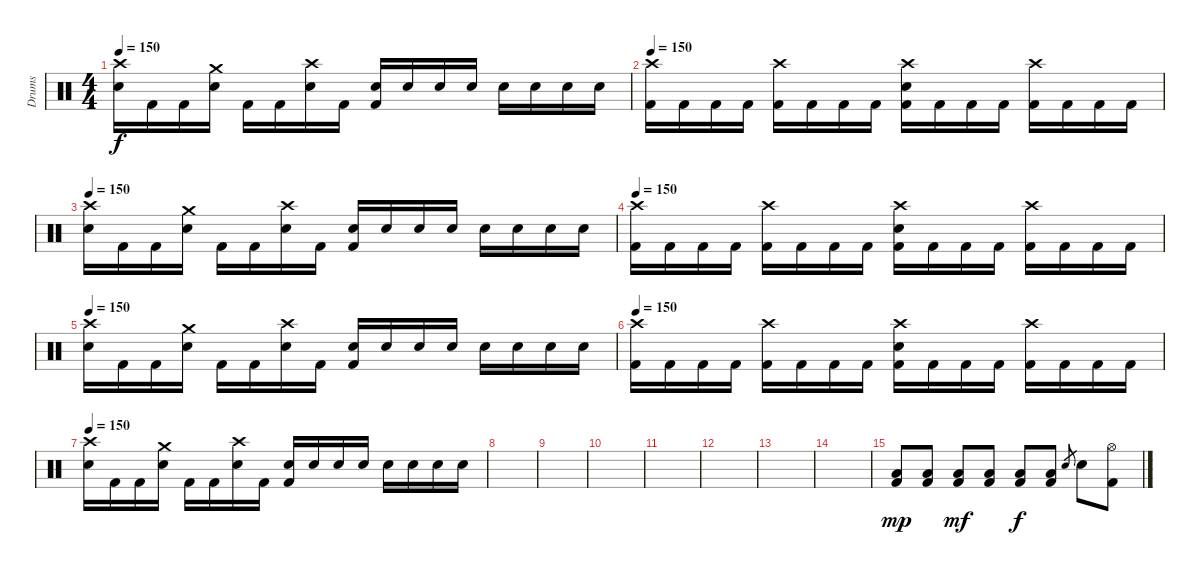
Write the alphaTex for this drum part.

\track ("Drums" "Drums") {instrument percussion}
\staff {score}
\articulation defaults
\ts (4 4)
\tempo 150
\clef neutral
\ks c
("Crash high (hit)" "Electric Snare (hit)").16{dy f} "Kick (hit) 2".16 "Kick (hit) 2".16 ("Crash medium (hit)" "Electric Snare (hit)").16 "Kick (hit) 2".16 "Kick (hit) 2".16 ("Crash high (hit)" "Electric Snare (hit)").16 "Kick (hit) 2".16 ("Electric Snare (hit)" "Kick (hit) 2").16 "Electric Snare (hit)".16 "Electric Snare (hit)".16 "Electric Snare (hit)".16 "Electric Snare (hit)".16 "Electric Snare (hit)".16 "Electric Snare (hit)".16 "Electric Snare (hit)".16 |
\tempo 150
("Crash high (hit)" "Kick (hit) 2").16 "Kick (hit) 2".16 "Kick (hit) 2".16 "Kick (hit) 2".16 ("Crash high (hit)" "Kick (hit) 2").16 "Kick (hit) 2".16 "Kick (hit) 2".16 "Kick (hit) 2".16 ("Crash high (hit)" "Electric Snare (hit)" "Kick (hit) 2").16 "Kick (hit) 2".16 "Kick (hit) 2".16 "Kick (hit) 2".16 ("Crash high (hit)" "Kick (hit) 2").16 "Kick (hit) 2".16 "Kick (hit) 2".16 "Kick (hit) 2".16 |
\tempo 150
("Crash high (hit)" "Electric Snare (hit)").16 "Kick (hit) 2".16 "Kick (hit) 2".16 ("Crash medium (hit)" "Electric Snare (hit)").16 "Kick (hit) 2".16 "Kick (hit) 2".16 ("Crash high (hit)" "Electric Snare (hit)").16 "Kick (hit) 2".16 ("Electric Snare (hit)" "Kick (hit) 2").16 "Electric Snare (hit)".16 "Electric Snare (hit)".16 "Electric Snare (hit)".16 "Electric Snare (hit)".16 "Electric Snare (hit)".16 "Electric Snare (hit)".16 "Electric Snare (hit)".16 |
\tempo 150
("Crash high (hit)" "Kick (hit) 2").16 "Kick (hit) 2".16 "Kick (hit) 2".16 "Kick (hit) 2".16 ("Crash high (hit)" "Kick (hit) 2").16 "Kick (hit) 2".16 "Kick (hit) 2".16 "Kick (hit) 2".16 ("Crash high (hit)" "Electric Snare (hit)" "Kick (hit) 2").16 "Kick (hit) 2".16 "Kick (hit) 2".16 "Kick (hit) 2".16 ("Crash high (hit)" "Kick (hit) 2").16 "Kick (hit) 2".16 "Kick (hit) 2".16 "Kick (hit) 2".16 |
\tempo 150
("Crash high (hit)" "Electric Snare (hit)").16 "Kick (hit) 2".16 "Kick (hit) 2".16 ("Crash medium (hit)" "Electric Snare (hit)").16 "Kick (hit) 2".16 "Kick (hit) 2".16 ("Crash high (hit)" "Electric Snare (hit)").16 "Kick (hit) 2".16 ("Electric Snare (hit)" "Kick (hit) 2").16 "Electric Snare (hit)".16 "Electric Snare (hit)".16 "Electric Snare (hit)".16 "Electric Snare (hit)".16 "Electric Snare (hit)".16 "Electric Snare (hit)".16 "Electric Snare (hit)".16 |
\tempo 150
("Crash high (hit)" "Kick (hit) 2").16 "Kick (hit) 2".16 "Kick (hit) 2".16 "Kick (hit) 2".16 ("Crash high (hit)" "Kick (hit) 2").16 "Kick (hit) 2".16 "Kick (hit) 2".16 "Kick (hit) 2".16 ("Crash high (hit)" "Electric Snare (hit)" "Kick (hit) 2").16 "Kick (hit) 2".16 "Kick (hit) 2".16 "Kick (hit) 2".16 ("Crash high (hit)" "Kick (hit) 2").16 "Kick (hit) 2".16 "Kick (hit) 2".16 "Kick (hit) 2".16 |
\tempo 150
("Crash high (hit)" "Electric Snare (hit)").16 "Kick (hit) 2".16 "Kick (hit) 2".16 ("Crash medium (hit)" "Electric Snare (hit)").16 "Kick (hit) 2".16 "Kick (hit) 2".16 ("Crash high (hit)" "Electric Snare (hit)").16 "Kick (hit) 2".16 ("Electric Snare (hit)" "Kick (hit) 2").16 "Electric Snare (hit)".16 "Electric Snare (hit)".16 "Electric Snare (hit)".16 "Electric Snare (hit)".16 "Electric Snare (hit)".16 "Electric Snare (hit)".16 "Electric Snare (hit)".16 |
|
|
|
|
|
|
|
("Low Floor Tom (hit)" "Kick (hit) 2").8{dy mp} ("Low Floor Tom (hit)" "Kick (hit) 2").8 ("Low Floor Tom (hit)" "Kick (hit) 2").8{dy mf} ("Low Floor Tom (hit)" "Kick (hit) 2").8 ("Low Floor Tom (hit)" "Kick (hit) 2").8{dy f} ("Low Floor Tom (hit)" "Kick (hit) 2").8 "Electric Snare (hit)".8{gr} "Electric Snare (hit)".8 ("Hi-Hat (open)" "Kick (hit) 2").8
